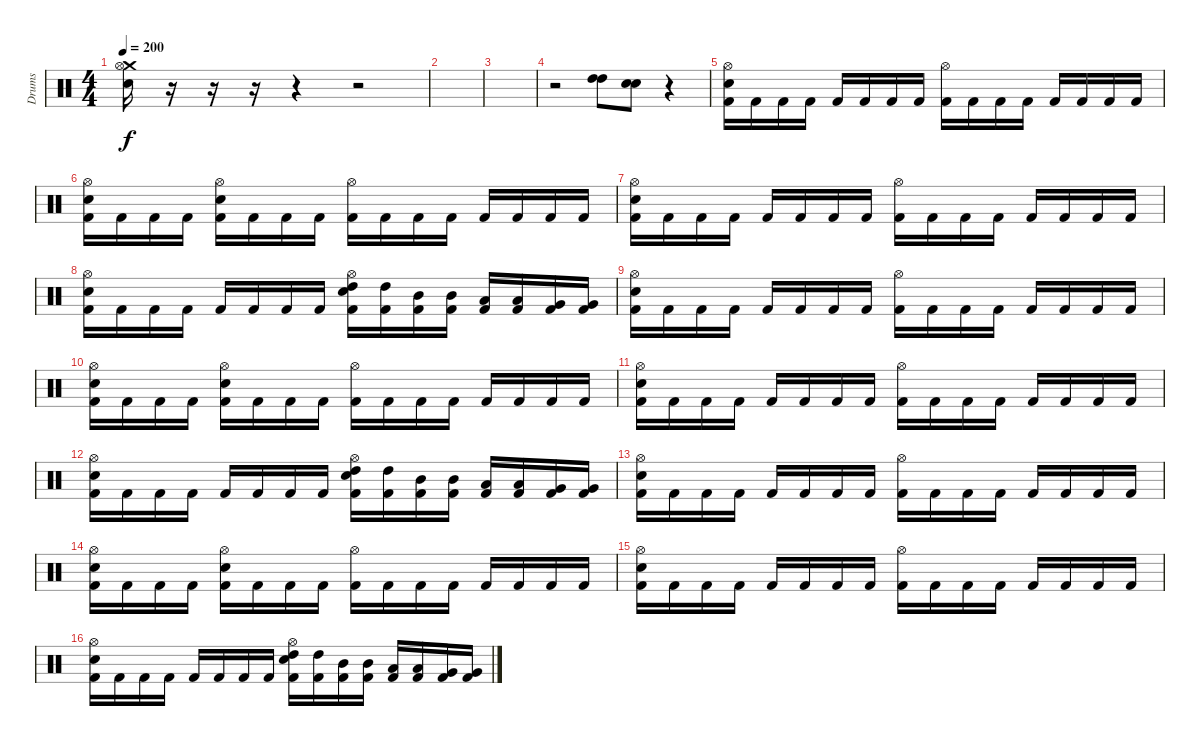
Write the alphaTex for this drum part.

\track ("Drums" "Drums") {instrument percussion}
\staff {score}
\articulation defaults
\ts (4 4)
\tempo 200
\clef neutral
\ks c
("Crash medium (hit)" "Hi-Hat (open)" "Electric Snare (hit)").16{dy f} r.16 r.16 r.16 r.4 r.2 |
|
|
r.2 ("High Tom (hit)" "High Tom (hit)").8 ("Electric Snare (hit)" "Electric Snare (hit)").8 r.4 |
("Hi-Hat (open)" "Electric Snare (hit)" "Kick (hit) 2").16 "Kick (hit) 2".16 "Kick (hit) 2".16 "Kick (hit) 2".16 "Kick (hit) 2".16 "Kick (hit) 2".16 "Kick (hit) 2".16 "Kick (hit) 2".16 ("Hi-Hat (open)" "Kick (hit) 2").16 "Kick (hit) 2".16 "Kick (hit) 2".16 "Kick (hit) 2".16 "Kick (hit) 2".16 "Kick (hit) 2".16 "Kick (hit) 2".16 "Kick (hit) 2".16 |
("Hi-Hat (open)" "Electric Snare (hit)" "Kick (hit) 2").16 "Kick (hit) 2".16 "Kick (hit) 2".16 "Kick (hit) 2".16 ("Hi-Hat (open)" "Electric Snare (hit)" "Kick (hit) 2").16 "Kick (hit) 2".16 "Kick (hit) 2".16 "Kick (hit) 2".16 ("Hi-Hat (open)" "Kick (hit) 2").16 "Kick (hit) 2".16 "Kick (hit) 2".16 "Kick (hit) 2".16 "Kick (hit) 2".16 "Kick (hit) 2".16 "Kick (hit) 2".16 "Kick (hit) 2".16 |
("Hi-Hat (open)" "Electric Snare (hit)" "Kick (hit) 2").16 "Kick (hit) 2".16 "Kick (hit) 2".16 "Kick (hit) 2".16 "Kick (hit) 2".16 "Kick (hit) 2".16 "Kick (hit) 2".16 "Kick (hit) 2".16 ("Hi-Hat (open)" "Kick (hit) 2").16 "Kick (hit) 2".16 "Kick (hit) 2".16 "Kick (hit) 2".16 "Kick (hit) 2".16 "Kick (hit) 2".16 "Kick (hit) 2".16 "Kick (hit) 2".16 |
("Hi-Hat (open)" "Electric Snare (hit)" "Kick (hit) 2").16 "Kick (hit) 2".16 "Kick (hit) 2".16 "Kick (hit) 2".16 "Kick (hit) 2".16 "Kick (hit) 2".16 "Kick (hit) 2".16 "Kick (hit) 2".16 ("Hi-Hat (open)" "High Tom (hit)" "Electric Snare (hit)" "Kick (hit) 2").16 ("High Tom (hit)" "Kick (hit) 2").16 ("Mid Tom (hit)" "Kick (hit) 2").16 ("Mid Tom (hit)" "Kick (hit) 2").16 ("Low Tom (hit)" "Kick (hit) 2").16 ("Low Tom (hit)" "Kick (hit) 2").16 ("Very Low Tom (hit)" "Kick (hit) 2").16 ("Very Low Tom (hit)" "Kick (hit) 2").16 |
("Hi-Hat (open)" "Electric Snare (hit)" "Kick (hit) 2").16 "Kick (hit) 2".16 "Kick (hit) 2".16 "Kick (hit) 2".16 "Kick (hit) 2".16 "Kick (hit) 2".16 "Kick (hit) 2".16 "Kick (hit) 2".16 ("Hi-Hat (open)" "Kick (hit) 2").16 "Kick (hit) 2".16 "Kick (hit) 2".16 "Kick (hit) 2".16 "Kick (hit) 2".16 "Kick (hit) 2".16 "Kick (hit) 2".16 "Kick (hit) 2".16 |
("Hi-Hat (open)" "Electric Snare (hit)" "Kick (hit) 2").16 "Kick (hit) 2".16 "Kick (hit) 2".16 "Kick (hit) 2".16 ("Hi-Hat (open)" "Electric Snare (hit)" "Kick (hit) 2").16 "Kick (hit) 2".16 "Kick (hit) 2".16 "Kick (hit) 2".16 ("Hi-Hat (open)" "Kick (hit) 2").16 "Kick (hit) 2".16 "Kick (hit) 2".16 "Kick (hit) 2".16 "Kick (hit) 2".16 "Kick (hit) 2".16 "Kick (hit) 2".16 "Kick (hit) 2".16 |
("Hi-Hat (open)" "Electric Snare (hit)" "Kick (hit) 2").16 "Kick (hit) 2".16 "Kick (hit) 2".16 "Kick (hit) 2".16 "Kick (hit) 2".16 "Kick (hit) 2".16 "Kick (hit) 2".16 "Kick (hit) 2".16 ("Hi-Hat (open)" "Kick (hit) 2").16 "Kick (hit) 2".16 "Kick (hit) 2".16 "Kick (hit) 2".16 "Kick (hit) 2".16 "Kick (hit) 2".16 "Kick (hit) 2".16 "Kick (hit) 2".16 |
("Hi-Hat (open)" "Electric Snare (hit)" "Kick (hit) 2").16 "Kick (hit) 2".16 "Kick (hit) 2".16 "Kick (hit) 2".16 "Kick (hit) 2".16 "Kick (hit) 2".16 "Kick (hit) 2".16 "Kick (hit) 2".16 ("Hi-Hat (open)" "High Tom (hit)" "Electric Snare (hit)" "Kick (hit) 2").16 ("High Tom (hit)" "Kick (hit) 2").16 ("Mid Tom (hit)" "Kick (hit) 2").16 ("Mid Tom (hit)" "Kick (hit) 2").16 ("Low Tom (hit)" "Kick (hit) 2").16 ("Low Tom (hit)" "Kick (hit) 2").16 ("Very Low Tom (hit)" "Kick (hit) 2").16 ("Very Low Tom (hit)" "Kick (hit) 2").16 |
("Hi-Hat (open)" "Electric Snare (hit)" "Kick (hit) 2").16 "Kick (hit) 2".16 "Kick (hit) 2".16 "Kick (hit) 2".16 "Kick (hit) 2".16 "Kick (hit) 2".16 "Kick (hit) 2".16 "Kick (hit) 2".16 ("Hi-Hat (open)" "Kick (hit) 2").16 "Kick (hit) 2".16 "Kick (hit) 2".16 "Kick (hit) 2".16 "Kick (hit) 2".16 "Kick (hit) 2".16 "Kick (hit) 2".16 "Kick (hit) 2".16 |
("Hi-Hat (open)" "Electric Snare (hit)" "Kick (hit) 2").16 "Kick (hit) 2".16 "Kick (hit) 2".16 "Kick (hit) 2".16 ("Hi-Hat (open)" "Electric Snare (hit)" "Kick (hit) 2").16 "Kick (hit) 2".16 "Kick (hit) 2".16 "Kick (hit) 2".16 ("Hi-Hat (open)" "Kick (hit) 2").16 "Kick (hit) 2".16 "Kick (hit) 2".16 "Kick (hit) 2".16 "Kick (hit) 2".16 "Kick (hit) 2".16 "Kick (hit) 2".16 "Kick (hit) 2".16 |
("Hi-Hat (open)" "Electric Snare (hit)" "Kick (hit) 2").16 "Kick (hit) 2".16 "Kick (hit) 2".16 "Kick (hit) 2".16 "Kick (hit) 2".16 "Kick (hit) 2".16 "Kick (hit) 2".16 "Kick (hit) 2".16 ("Hi-Hat (open)" "Kick (hit) 2").16 "Kick (hit) 2".16 "Kick (hit) 2".16 "Kick (hit) 2".16 "Kick (hit) 2".16 "Kick (hit) 2".16 "Kick (hit) 2".16 "Kick (hit) 2".16 |
("Hi-Hat (open)" "Electric Snare (hit)" "Kick (hit) 2").16 "Kick (hit) 2".16 "Kick (hit) 2".16 "Kick (hit) 2".16 "Kick (hit) 2".16 "Kick (hit) 2".16 "Kick (hit) 2".16 "Kick (hit) 2".16 ("Hi-Hat (open)" "High Tom (hit)" "Electric Snare (hit)" "Kick (hit) 2").16 ("High Tom (hit)" "Kick (hit) 2").16 ("Mid Tom (hit)" "Kick (hit) 2").16 ("Mid Tom (hit)" "Kick (hit) 2").16 ("Low Tom (hit)" "Kick (hit) 2").16 ("Low Tom (hit)" "Kick (hit) 2").16 ("Very Low Tom (hit)" "Kick (hit) 2").16 ("Very Low Tom (hit)" "Kick (hit) 2").16
